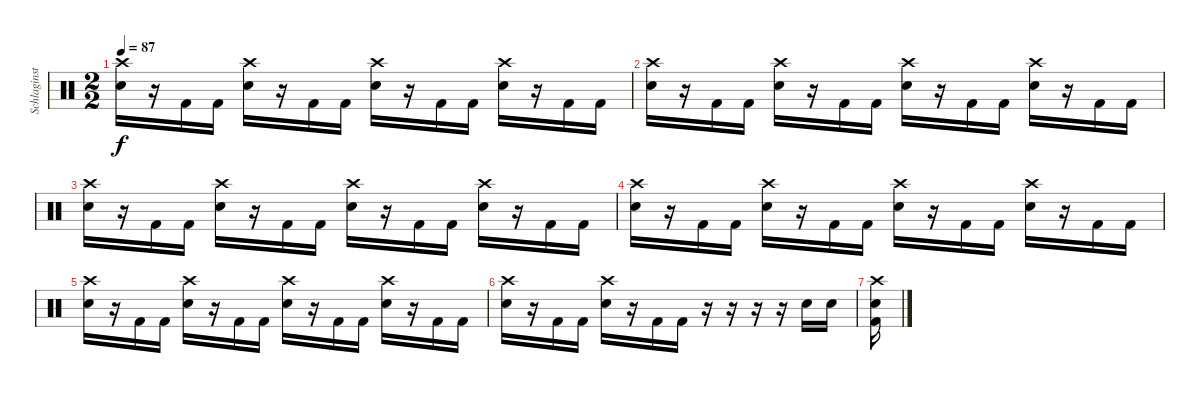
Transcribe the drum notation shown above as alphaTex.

\track ("Schlaginstrumente - Auswahl" "Schlaginst") {instrument percussion}
\staff {score}
\articulation defaults
\ts (2 2)
\tempo 87
\clef neutral
\ks c
("Crash high (hit)" "Electric Snare (hit)").16{dy f} r.16 "Kick (hit) 2".16 "Kick (hit) 2".16 ("Crash high (hit)" "Electric Snare (hit)").16 r.16 "Kick (hit) 2".16 "Kick (hit) 2".16 ("Crash high (hit)" "Electric Snare (hit)").16 r.16 "Kick (hit) 2".16 "Kick (hit) 2".16 ("Crash high (hit)" "Electric Snare (hit)").16 r.16 "Kick (hit) 2".16 "Kick (hit) 2".16 |
("Crash high (hit)" "Electric Snare (hit)").16 r.16 "Kick (hit) 2".16 "Kick (hit) 2".16 ("Crash high (hit)" "Electric Snare (hit)").16 r.16 "Kick (hit) 2".16 "Kick (hit) 2".16 ("Crash high (hit)" "Electric Snare (hit)").16 r.16 "Kick (hit) 2".16 "Kick (hit) 2".16 ("Crash high (hit)" "Electric Snare (hit)").16 r.16 "Kick (hit) 2".16 "Kick (hit) 2".16 |
("Crash high (hit)" "Electric Snare (hit)").16 r.16 "Kick (hit) 2".16 "Kick (hit) 2".16 ("Crash high (hit)" "Electric Snare (hit)").16 r.16 "Kick (hit) 2".16 "Kick (hit) 2".16 ("Crash high (hit)" "Electric Snare (hit)").16 r.16 "Kick (hit) 2".16 "Kick (hit) 2".16 ("Crash high (hit)" "Electric Snare (hit)").16 r.16 "Kick (hit) 2".16 "Kick (hit) 2".16 |
("Crash high (hit)" "Electric Snare (hit)").16 r.16 "Kick (hit) 2".16 "Kick (hit) 2".16 ("Crash high (hit)" "Electric Snare (hit)").16 r.16 "Kick (hit) 2".16 "Kick (hit) 2".16 ("Crash high (hit)" "Electric Snare (hit)").16 r.16 "Kick (hit) 2".16 "Kick (hit) 2".16 ("Crash high (hit)" "Electric Snare (hit)").16 r.16 "Kick (hit) 2".16 "Kick (hit) 2".16 |
("Crash high (hit)" "Electric Snare (hit)").16 r.16 "Kick (hit) 2".16 "Kick (hit) 2".16 ("Crash high (hit)" "Electric Snare (hit)").16 r.16 "Kick (hit) 2".16 "Kick (hit) 2".16 ("Crash high (hit)" "Electric Snare (hit)").16 r.16 "Kick (hit) 2".16 "Kick (hit) 2".16 ("Crash high (hit)" "Electric Snare (hit)").16 r.16 "Kick (hit) 2".16 "Kick (hit) 2".16 |
("Crash high (hit)" "Electric Snare (hit)").16 r.16 "Kick (hit) 2".16 "Kick (hit) 2".16 ("Crash high (hit)" "Electric Snare (hit)").16 r.16 "Kick (hit) 2".16 "Kick (hit) 2".16 r.16 r.16 r.16 r.16 "Electric Snare (hit)".16 "Electric Snare (hit)".16 |
("Crash high (hit)" "Electric Snare (hit)" "Kick (hit) 2").16
